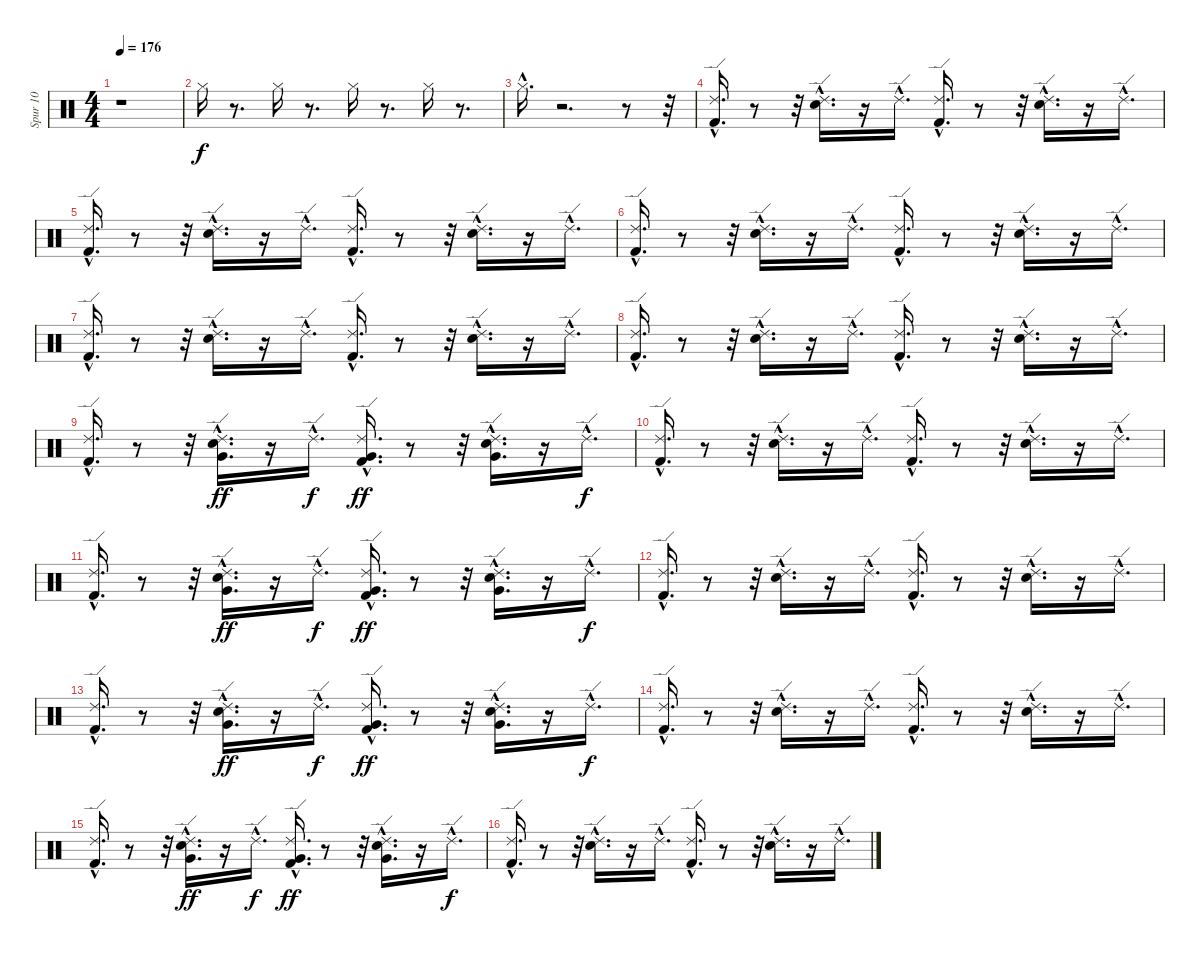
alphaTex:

\track ("Spur 10" "Spur 10") {instrument percussion}
\staff {score}
\articulation defaults
\ts (4 4)
\tempo 176
\clef neutral
\ks c
r.1{dy f} |
"Hi-Hat (closed)".16 r.8{d} "Hi-Hat (closed)".16 r.8{d} "Hi-Hat (closed)".16 r.8{d} "Hi-Hat (closed)".16 r.8{d} |
"Hi-Hat (closed)"{hac}.16{d} r.2{d} r.8 r.32 |
("Kick (hit) 2"{hac} "Ride (edge) 2"{hac}).16{d} r.8 r.32 ("Snare (hit) 2"{hac} "Ride (edge) 2"{hac}).16{d} r.16 "Ride (edge) 2"{hac}.16{d} ("Kick (hit) 2"{hac} "Ride (edge) 2"{hac}).16{d} r.8 r.32 ("Snare (hit) 2"{hac} "Ride (edge) 2"{hac}).16{d} r.16 "Ride (edge) 2"{hac}.16{d} |
("Kick (hit) 2"{hac} "Ride (edge) 2"{hac}).16{d} r.8 r.32 ("Snare (hit) 2"{hac} "Ride (edge) 2"{hac}).16{d} r.16 "Ride (edge) 2"{hac}.16{d} ("Kick (hit) 2"{hac} "Ride (edge) 2"{hac}).16{d} r.8 r.32 ("Snare (hit) 2"{hac} "Ride (edge) 2"{hac}).16{d} r.16 "Ride (edge) 2"{hac}.16{d} |
("Kick (hit) 2"{hac} "Ride (edge) 2"{hac}).16{d} r.8 r.32 ("Snare (hit) 2"{hac} "Ride (edge) 2"{hac}).16{d} r.16 "Ride (edge) 2"{hac}.16{d} ("Kick (hit) 2"{hac} "Ride (edge) 2"{hac}).16{d} r.8 r.32 ("Snare (hit) 2"{hac} "Ride (edge) 2"{hac}).16{d} r.16 "Ride (edge) 2"{hac}.16{d} |
("Kick (hit) 2"{hac} "Ride (edge) 2"{hac}).16{d} r.8 r.32 ("Snare (hit) 2"{hac} "Ride (edge) 2"{hac}).16{d} r.16 "Ride (edge) 2"{hac}.16{d} ("Kick (hit) 2"{hac} "Ride (edge) 2"{hac}).16{d} r.8 r.32 ("Snare (hit) 2"{hac} "Ride (edge) 2"{hac}).16{d} r.16 "Ride (edge) 2"{hac}.16{d} |
("Ride (edge) 2"{hac} "Kick (hit) 2"{hac}).16{d} r.8 r.32 ("Ride (edge) 2"{hac} "Snare (hit) 2"{hac}).16{d} r.16 "Ride (edge) 2"{hac}.16{d} ("Ride (edge) 2"{hac} "Kick (hit) 2"{hac}).16{d} r.8 r.32 ("Ride (edge) 2"{hac} "Snare (hit) 2"{hac}).16{d} r.16 "Ride (edge) 2"{hac}.16{d} |
("Ride (edge) 2"{hac} "Kick (hit) 2"{hac}).16{d} r.8 r.32 ("Very Low Tom (hit)"{hac} "Ride (edge) 2"{hac} "Snare (hit) 2"{hac}).16{d dy ff} r.16 "Ride (edge) 2"{hac}.16{d dy f} ("Very Low Tom (hit)"{hac} "Ride (edge) 2"{hac} "Kick (hit) 2"{hac}).16{d dy ff} r.8 r.32 ("Very Low Tom (hit)"{hac} "Ride (edge) 2"{hac} "Snare (hit) 2"{hac}).16{d} r.16 "Ride (edge) 2"{hac}.16{d dy f} |
("Ride (edge) 2"{hac} "Kick (hit) 2"{hac}).16{d} r.8 r.32 ("Ride (edge) 2"{hac} "Snare (hit) 2"{hac}).16{d} r.16 "Ride (edge) 2"{hac}.16{d} ("Ride (edge) 2"{hac} "Kick (hit) 2"{hac}).16{d} r.8 r.32 ("Ride (edge) 2"{hac} "Snare (hit) 2"{hac}).16{d} r.16 "Ride (edge) 2"{hac}.16{d} |
("Ride (edge) 2"{hac} "Kick (hit) 2"{hac}).16{d} r.8 r.32 ("Very Low Tom (hit)"{hac} "Ride (edge) 2"{hac} "Snare (hit) 2"{hac}).16{d dy ff} r.16 "Ride (edge) 2"{hac}.16{d dy f} ("Very Low Tom (hit)"{hac} "Ride (edge) 2"{hac} "Kick (hit) 2"{hac}).16{d dy ff} r.8 r.32 ("Very Low Tom (hit)"{hac} "Ride (edge) 2"{hac} "Snare (hit) 2"{hac}).16{d} r.16 "Ride (edge) 2"{hac}.16{d dy f} |
("Ride (edge) 2"{hac} "Kick (hit) 2"{hac}).16{d} r.8 r.32 ("Ride (edge) 2"{hac} "Snare (hit) 2"{hac}).16{d} r.16 "Ride (edge) 2"{hac}.16{d} ("Ride (edge) 2"{hac} "Kick (hit) 2"{hac}).16{d} r.8 r.32 ("Ride (edge) 2"{hac} "Snare (hit) 2"{hac}).16{d} r.16 "Ride (edge) 2"{hac}.16{d} |
("Ride (edge) 2"{hac} "Kick (hit) 2"{hac}).16{d} r.8 r.32 ("Very Low Tom (hit)"{hac} "Ride (edge) 2"{hac} "Snare (hit) 2"{hac}).16{d dy ff} r.16 "Ride (edge) 2"{hac}.16{d dy f} ("Very Low Tom (hit)"{hac} "Ride (edge) 2"{hac} "Kick (hit) 2"{hac}).16{d dy ff} r.8 r.32 ("Very Low Tom (hit)"{hac} "Ride (edge) 2"{hac} "Snare (hit) 2"{hac}).16{d} r.16 "Ride (edge) 2"{hac}.16{d dy f} |
("Ride (edge) 2"{hac} "Kick (hit) 2"{hac}).16{d} r.8 r.32 ("Ride (edge) 2"{hac} "Snare (hit) 2"{hac}).16{d} r.16 "Ride (edge) 2"{hac}.16{d} ("Ride (edge) 2"{hac} "Kick (hit) 2"{hac}).16{d} r.8 r.32 ("Ride (edge) 2"{hac} "Snare (hit) 2"{hac}).16{d} r.16 "Ride (edge) 2"{hac}.16{d} |
("Ride (edge) 2"{hac} "Kick (hit) 2"{hac}).16{d} r.8 r.32 ("Very Low Tom (hit)"{hac} "Ride (edge) 2"{hac} "Snare (hit) 2"{hac}).16{d dy ff} r.16 "Ride (edge) 2"{hac}.16{d dy f} ("Very Low Tom (hit)"{hac} "Ride (edge) 2"{hac} "Kick (hit) 2"{hac}).16{d dy ff} r.8 r.32 ("Very Low Tom (hit)"{hac} "Ride (edge) 2"{hac} "Snare (hit) 2"{hac}).16{d} r.16 "Ride (edge) 2"{hac}.16{d dy f} |
("Ride (edge) 2"{hac} "Kick (hit) 2"{hac}).16{d} r.8 r.32 ("Ride (edge) 2"{hac} "Snare (hit) 2"{hac}).16{d} r.16 "Ride (edge) 2"{hac}.16{d} ("Ride (edge) 2"{hac} "Kick (hit) 2"{hac}).16{d} r.8 r.32 ("Ride (edge) 2"{hac} "Snare (hit) 2"{hac}).16{d} r.16 "Ride (edge) 2"{hac}.16{d}
